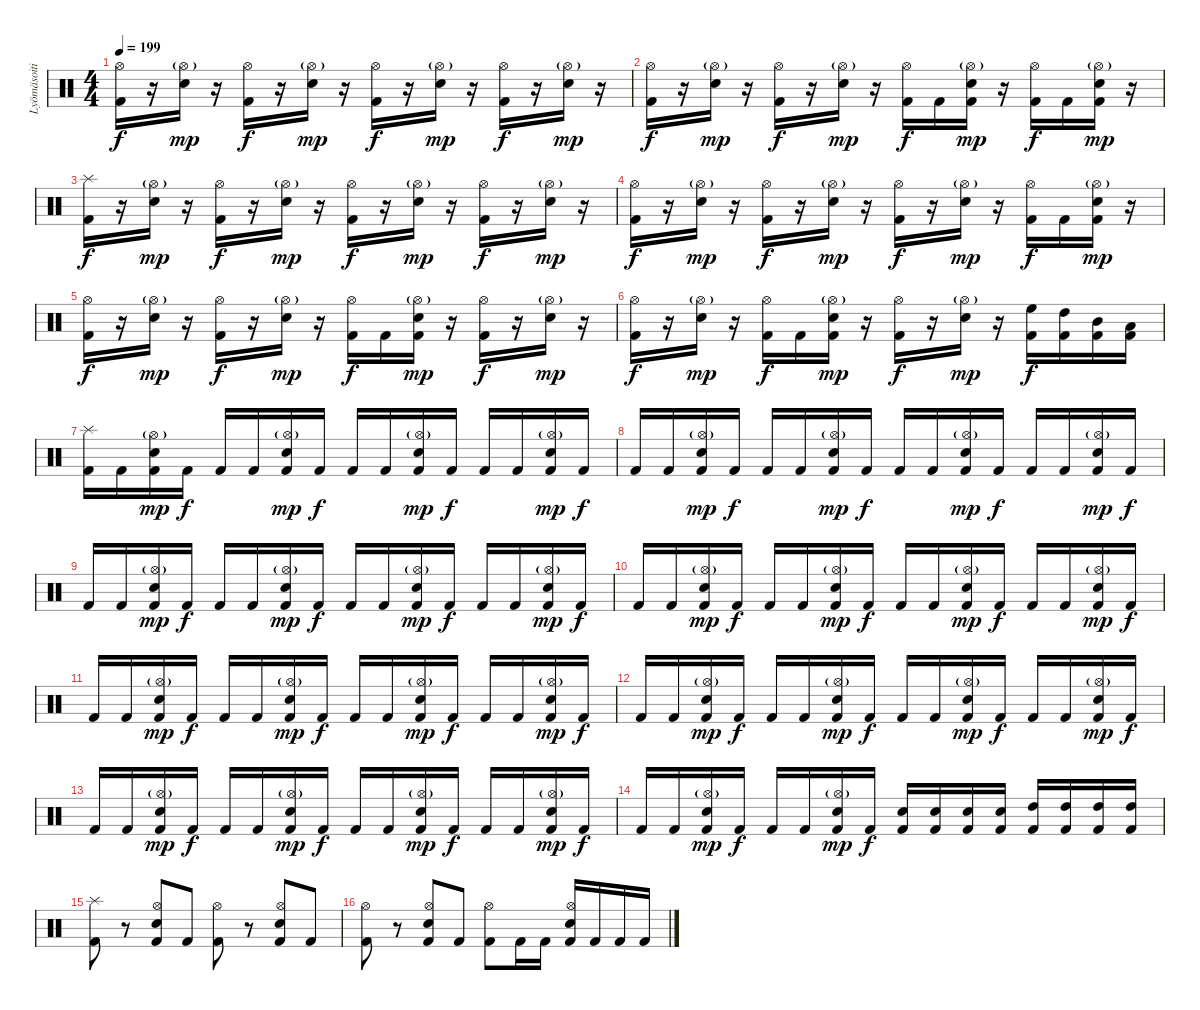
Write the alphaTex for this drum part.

\track ("Lyömäsoitin" "Lyömäsoiti") {instrument percussion}
\staff {score}
\articulation defaults
\ts (4 4)
\tempo 199
\clef neutral
\ks c
("Kick (hit) 2" "Hi-Hat (open)").16{dy f} r.16 ("Hi-Hat (open)"{g} "Snare (hit) 2").16{dy mp} r.16 ("Kick (hit) 2" "Hi-Hat (open)").16{dy f} r.16 ("Hi-Hat (open)"{g} "Snare (hit) 2").16{dy mp} r.16 ("Kick (hit) 2" "Hi-Hat (open)").16{dy f} r.16 ("Hi-Hat (open)"{g} "Snare (hit) 2").16{dy mp} r.16 ("Kick (hit) 2" "Hi-Hat (open)").16{dy f} r.16 ("Hi-Hat (open)"{g} "Snare (hit) 2").16{dy mp} r.16 |
("Kick (hit) 2" "Hi-Hat (open)").16{dy f} r.16 ("Hi-Hat (open)"{g} "Snare (hit) 2").16{dy mp} r.16 ("Kick (hit) 2" "Hi-Hat (open)").16{dy f} r.16 ("Hi-Hat (open)"{g} "Snare (hit) 2").16{dy mp} r.16 ("Kick (hit) 2" "Hi-Hat (open)").16{dy f} "Kick (hit) 2".16 ("Kick (hit) 2" "Hi-Hat (open)"{g} "Snare (hit) 2").16{dy mp} r.16 ("Kick (hit) 2" "Hi-Hat (open)").16{dy f} "Kick (hit) 2".16 ("Kick (hit) 2" "Hi-Hat (open)"{g} "Snare (hit) 2").16{dy mp} r.16 |
("Kick (hit) 2" "Splash (hit)").16{dy f} r.16 ("Hi-Hat (open)"{g} "Snare (hit) 2").16{dy mp} r.16 ("Kick (hit) 2" "Hi-Hat (open)").16{dy f} r.16 ("Hi-Hat (open)"{g} "Snare (hit) 2").16{dy mp} r.16 ("Kick (hit) 2" "Hi-Hat (open)").16{dy f} r.16 ("Hi-Hat (open)"{g} "Snare (hit) 2").16{dy mp} r.16 ("Kick (hit) 2" "Hi-Hat (open)").16{dy f} r.16 ("Hi-Hat (open)"{g} "Snare (hit) 2").16{dy mp} r.16 |
("Kick (hit) 2" "Hi-Hat (open)").16{dy f} r.16 ("Hi-Hat (open)"{g} "Snare (hit) 2").16{dy mp} r.16 ("Kick (hit) 2" "Hi-Hat (open)").16{dy f} r.16 ("Hi-Hat (open)"{g} "Snare (hit) 2").16{dy mp} r.16 ("Kick (hit) 2" "Hi-Hat (open)").16{dy f} r.16 ("Hi-Hat (open)"{g} "Snare (hit) 2").16{dy mp} r.16 ("Kick (hit) 2" "Hi-Hat (open)").16{dy f} "Kick (hit) 2".16 ("Kick (hit) 2" "Hi-Hat (open)"{g} "Snare (hit) 2").16{dy mp} r.16 |
("Kick (hit) 2" "Hi-Hat (open)").16{dy f} r.16 ("Hi-Hat (open)"{g} "Snare (hit) 2").16{dy mp} r.16 ("Kick (hit) 2" "Hi-Hat (open)").16{dy f} r.16 ("Hi-Hat (open)"{g} "Snare (hit) 2").16{dy mp} r.16 ("Kick (hit) 2" "Hi-Hat (open)").16{dy f} "Kick (hit) 2".16 ("Kick (hit) 2" "Hi-Hat (open)"{g} "Snare (hit) 2").16{dy mp} r.16 ("Kick (hit) 2" "Hi-Hat (open)").16{dy f} r.16 ("Hi-Hat (open)"{g} "Snare (hit) 2").16{dy mp} r.16 |
("Kick (hit) 2" "Hi-Hat (open)").16{dy f} r.16 ("Hi-Hat (open)"{g} "Snare (hit) 2").16{dy mp} r.16 ("Kick (hit) 2" "Hi-Hat (open)").16{dy f} "Kick (hit) 2".16 ("Kick (hit) 2" "Hi-Hat (open)"{g} "Snare (hit) 2").16{dy mp} r.16 ("Kick (hit) 2" "Hi-Hat (open)").16{dy f} r.16 ("Hi-Hat (open)"{g} "Snare (hit) 2").16{dy mp} r.16 ("Kick (hit) 2" "High Floor Tom (hit)").16{dy f} ("Kick (hit) 2" "High Tom (hit)").16 ("Kick (hit) 2" "Mid Tom (hit)").16 ("Kick (hit) 2" "Low Tom (hit)").16 |
("Kick (hit) 2" "Splash (hit)").16 "Kick (hit) 2".16 ("Kick (hit) 2" "Snare (hit) 2" "Hi-Hat (open)"{g}).16{dy mp} "Kick (hit) 2".16{dy f} "Kick (hit) 2".16 "Kick (hit) 2".16 ("Kick (hit) 2" "Snare (hit) 2" "Hi-Hat (open)"{g}).16{dy mp} "Kick (hit) 2".16{dy f} "Kick (hit) 2".16 "Kick (hit) 2".16 ("Kick (hit) 2" "Snare (hit) 2" "Hi-Hat (open)"{g}).16{dy mp} "Kick (hit) 2".16{dy f} "Kick (hit) 2".16 "Kick (hit) 2".16 ("Kick (hit) 2" "Snare (hit) 2" "Hi-Hat (open)"{g}).16{dy mp} "Kick (hit) 2".16{dy f} |
"Kick (hit) 2".16 "Kick (hit) 2".16 ("Kick (hit) 2" "Snare (hit) 2" "Hi-Hat (open)"{g}).16{dy mp} "Kick (hit) 2".16{dy f} "Kick (hit) 2".16 "Kick (hit) 2".16 ("Kick (hit) 2" "Snare (hit) 2" "Hi-Hat (open)"{g}).16{dy mp} "Kick (hit) 2".16{dy f} "Kick (hit) 2".16 "Kick (hit) 2".16 ("Kick (hit) 2" "Snare (hit) 2" "Hi-Hat (open)"{g}).16{dy mp} "Kick (hit) 2".16{dy f} "Kick (hit) 2".16 "Kick (hit) 2".16 ("Kick (hit) 2" "Snare (hit) 2" "Hi-Hat (open)"{g}).16{dy mp} "Kick (hit) 2".16{dy f} |
"Kick (hit) 2".16 "Kick (hit) 2".16 ("Kick (hit) 2" "Snare (hit) 2" "Hi-Hat (open)"{g}).16{dy mp} "Kick (hit) 2".16{dy f} "Kick (hit) 2".16 "Kick (hit) 2".16 ("Kick (hit) 2" "Snare (hit) 2" "Hi-Hat (open)"{g}).16{dy mp} "Kick (hit) 2".16{dy f} "Kick (hit) 2".16 "Kick (hit) 2".16 ("Kick (hit) 2" "Snare (hit) 2" "Hi-Hat (open)"{g}).16{dy mp} "Kick (hit) 2".16{dy f} "Kick (hit) 2".16 "Kick (hit) 2".16 ("Kick (hit) 2" "Snare (hit) 2" "Hi-Hat (open)"{g}).16{dy mp} "Kick (hit) 2".16{dy f} |
"Kick (hit) 2".16 "Kick (hit) 2".16 ("Kick (hit) 2" "Snare (hit) 2" "Hi-Hat (open)"{g}).16{dy mp} "Kick (hit) 2".16{dy f} "Kick (hit) 2".16 "Kick (hit) 2".16 ("Kick (hit) 2" "Snare (hit) 2" "Hi-Hat (open)"{g}).16{dy mp} "Kick (hit) 2".16{dy f} "Kick (hit) 2".16 "Kick (hit) 2".16 ("Kick (hit) 2" "Snare (hit) 2" "Hi-Hat (open)"{g}).16{dy mp} "Kick (hit) 2".16{dy f} "Kick (hit) 2".16 "Kick (hit) 2".16 ("Kick (hit) 2" "Snare (hit) 2" "Hi-Hat (open)"{g}).16{dy mp} "Kick (hit) 2".16{dy f} |
"Kick (hit) 2".16 "Kick (hit) 2".16 ("Kick (hit) 2" "Snare (hit) 2" "Hi-Hat (open)"{g}).16{dy mp} "Kick (hit) 2".16{dy f} "Kick (hit) 2".16 "Kick (hit) 2".16 ("Kick (hit) 2" "Snare (hit) 2" "Hi-Hat (open)"{g}).16{dy mp} "Kick (hit) 2".16{dy f} "Kick (hit) 2".16 "Kick (hit) 2".16 ("Kick (hit) 2" "Snare (hit) 2" "Hi-Hat (open)"{g}).16{dy mp} "Kick (hit) 2".16{dy f} "Kick (hit) 2".16 "Kick (hit) 2".16 ("Kick (hit) 2" "Snare (hit) 2" "Hi-Hat (open)"{g}).16{dy mp} "Kick (hit) 2".16{dy f} |
"Kick (hit) 2".16 "Kick (hit) 2".16 ("Kick (hit) 2" "Snare (hit) 2" "Hi-Hat (open)"{g}).16{dy mp} "Kick (hit) 2".16{dy f} "Kick (hit) 2".16 "Kick (hit) 2".16 ("Kick (hit) 2" "Snare (hit) 2" "Hi-Hat (open)"{g}).16{dy mp} "Kick (hit) 2".16{dy f} "Kick (hit) 2".16 "Kick (hit) 2".16 ("Kick (hit) 2" "Snare (hit) 2" "Hi-Hat (open)"{g}).16{dy mp} "Kick (hit) 2".16{dy f} "Kick (hit) 2".16 "Kick (hit) 2".16 ("Kick (hit) 2" "Snare (hit) 2" "Hi-Hat (open)"{g}).16{dy mp} "Kick (hit) 2".16{dy f} |
"Kick (hit) 2".16 "Kick (hit) 2".16 ("Kick (hit) 2" "Snare (hit) 2" "Hi-Hat (open)"{g}).16{dy mp} "Kick (hit) 2".16{dy f} "Kick (hit) 2".16 "Kick (hit) 2".16 ("Kick (hit) 2" "Snare (hit) 2" "Hi-Hat (open)"{g}).16{dy mp} "Kick (hit) 2".16{dy f} "Kick (hit) 2".16 "Kick (hit) 2".16 ("Kick (hit) 2" "Snare (hit) 2" "Hi-Hat (open)"{g}).16{dy mp} "Kick (hit) 2".16{dy f} "Kick (hit) 2".16 "Kick (hit) 2".16 ("Kick (hit) 2" "Snare (hit) 2" "Hi-Hat (open)"{g}).16{dy mp} "Kick (hit) 2".16{dy f} |
"Kick (hit) 2".16 "Kick (hit) 2".16 ("Kick (hit) 2" "Snare (hit) 2" "Hi-Hat (open)"{g}).16{dy mp} "Kick (hit) 2".16{dy f} "Kick (hit) 2".16 "Kick (hit) 2".16 ("Kick (hit) 2" "Snare (hit) 2" "Hi-Hat (open)"{g}).16{dy mp} "Kick (hit) 2".16{dy f} ("Kick (hit) 2" "Snare (hit) 2").16 ("Kick (hit) 2" "Snare (hit) 2").16 ("Kick (hit) 2" "Snare (hit) 2").16 ("Kick (hit) 2" "Snare (hit) 2").16 ("Kick (hit) 2" "High Tom (hit)").16 ("Kick (hit) 2" "High Tom (hit)").16 ("Kick (hit) 2" "High Tom (hit)").16 ("Kick (hit) 2" "High Tom (hit)").16 |
("Kick (hit) 2" "Splash (hit)").8 r.8 ("Kick (hit) 2" "Hi-Hat (open)" "Snare (hit) 2").8 "Kick (hit) 2".8 ("Kick (hit) 2" "Hi-Hat (open)").8 r.8 ("Kick (hit) 2" "Hi-Hat (open)" "Snare (hit) 2").8 "Kick (hit) 2".8 |
("Kick (hit) 2" "Hi-Hat (open)").8 r.8 ("Kick (hit) 2" "Hi-Hat (open)" "Snare (hit) 2").8 "Kick (hit) 2".8 ("Kick (hit) 2" "Hi-Hat (open)").8 "Kick (hit) 2".16 "Kick (hit) 2".16 ("Kick (hit) 2" "Hi-Hat (open)" "Snare (hit) 2").16 "Kick (hit) 2".16 "Kick (hit) 2".16 "Kick (hit) 2".16
